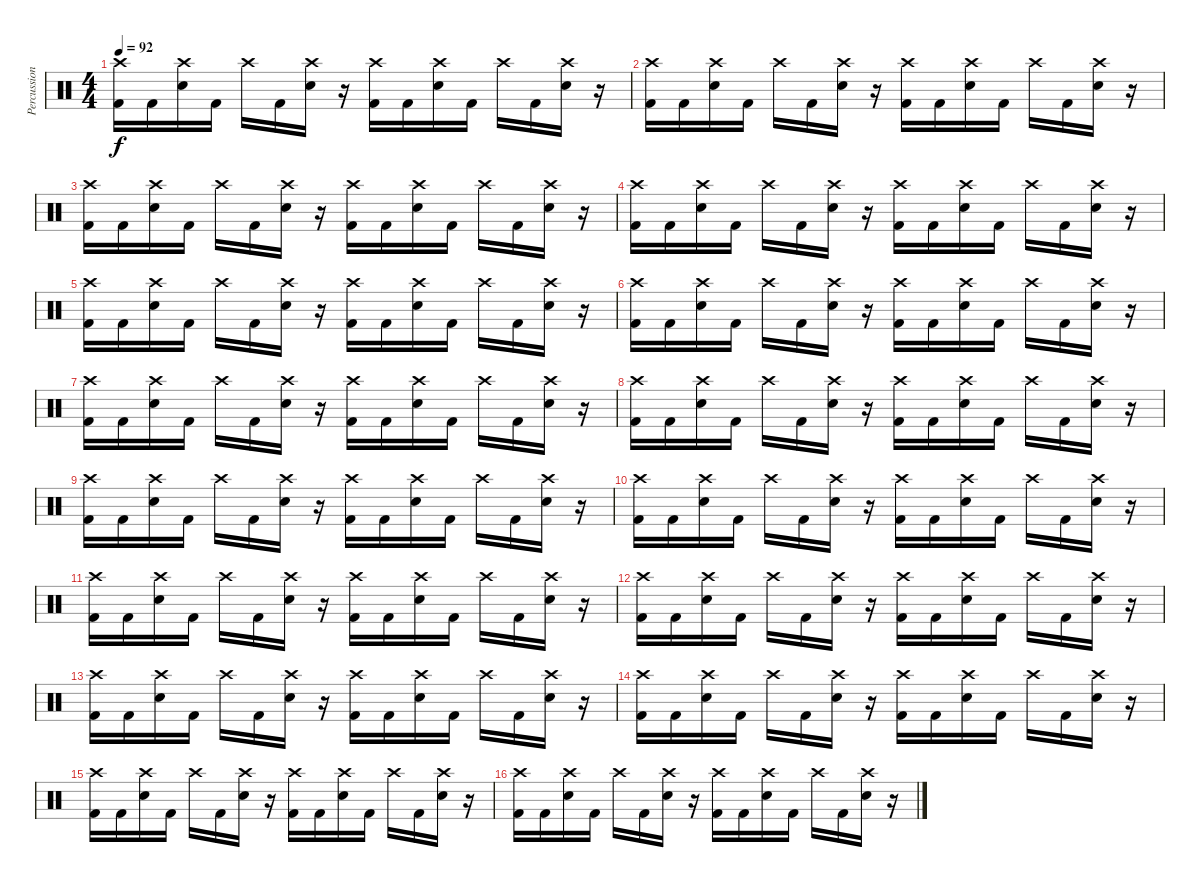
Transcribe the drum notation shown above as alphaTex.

\track ("Percussion" "Percussion") {instrument percussion}
\staff {score}
\articulation defaults
\ts (4 4)
\tempo 92
\clef neutral
\ks c
("Crash high (hit)" "Kick (hit) 2").16{dy f} "Kick (hit) 2".16 ("Crash high (hit)" "Snare (hit) 2").16 "Kick (hit) 2".16 "Crash high (hit)".16 "Kick (hit) 2".16 ("Crash high (hit)" "Snare (hit) 2").16 r.16 ("Crash high (hit)" "Kick (hit) 2").16 "Kick (hit) 2".16 ("Crash high (hit)" "Snare (hit) 2").16 "Kick (hit) 2".16 "Crash high (hit)".16 "Kick (hit) 2".16 ("Crash high (hit)" "Snare (hit) 2").16 r.16 |
("Crash high (hit)" "Kick (hit) 2").16 "Kick (hit) 2".16 ("Crash high (hit)" "Snare (hit) 2").16 "Kick (hit) 2".16 "Crash high (hit)".16 "Kick (hit) 2".16 ("Crash high (hit)" "Snare (hit) 2").16 r.16 ("Crash high (hit)" "Kick (hit) 2").16 "Kick (hit) 2".16 ("Crash high (hit)" "Snare (hit) 2").16 "Kick (hit) 2".16 "Crash high (hit)".16 "Kick (hit) 2".16 ("Crash high (hit)" "Snare (hit) 2").16 r.16 |
("Crash high (hit)" "Kick (hit) 2").16 "Kick (hit) 2".16 ("Crash high (hit)" "Snare (hit) 2").16 "Kick (hit) 2".16 "Crash high (hit)".16 "Kick (hit) 2".16 ("Crash high (hit)" "Snare (hit) 2").16 r.16 ("Crash high (hit)" "Kick (hit) 2").16 "Kick (hit) 2".16 ("Crash high (hit)" "Snare (hit) 2").16 "Kick (hit) 2".16 "Crash high (hit)".16 "Kick (hit) 2".16 ("Crash high (hit)" "Snare (hit) 2").16 r.16 |
("Crash high (hit)" "Kick (hit) 2").16 "Kick (hit) 2".16 ("Crash high (hit)" "Snare (hit) 2").16 "Kick (hit) 2".16 "Crash high (hit)".16 "Kick (hit) 2".16 ("Crash high (hit)" "Snare (hit) 2").16 r.16 ("Crash high (hit)" "Kick (hit) 2").16 "Kick (hit) 2".16 ("Crash high (hit)" "Snare (hit) 2").16 "Kick (hit) 2".16 "Crash high (hit)".16 "Kick (hit) 2".16 ("Crash high (hit)" "Snare (hit) 2").16 r.16 |
("Crash high (hit)" "Kick (hit) 2").16 "Kick (hit) 2".16 ("Crash high (hit)" "Snare (hit) 2").16 "Kick (hit) 2".16 "Crash high (hit)".16 "Kick (hit) 2".16 ("Crash high (hit)" "Snare (hit) 2").16 r.16 ("Crash high (hit)" "Kick (hit) 2").16 "Kick (hit) 2".16 ("Crash high (hit)" "Snare (hit) 2").16 "Kick (hit) 2".16 "Crash high (hit)".16 "Kick (hit) 2".16 ("Crash high (hit)" "Snare (hit) 2").16 r.16 |
("Crash high (hit)" "Kick (hit) 2").16 "Kick (hit) 2".16 ("Crash high (hit)" "Snare (hit) 2").16 "Kick (hit) 2".16 "Crash high (hit)".16 "Kick (hit) 2".16 ("Crash high (hit)" "Snare (hit) 2").16 r.16 ("Crash high (hit)" "Kick (hit) 2").16 "Kick (hit) 2".16 ("Crash high (hit)" "Snare (hit) 2").16 "Kick (hit) 2".16 "Crash high (hit)".16 "Kick (hit) 2".16 ("Crash high (hit)" "Snare (hit) 2").16 r.16 |
("Crash high (hit)" "Kick (hit) 2").16 "Kick (hit) 2".16 ("Crash high (hit)" "Snare (hit) 2").16 "Kick (hit) 2".16 "Crash high (hit)".16 "Kick (hit) 2".16 ("Crash high (hit)" "Snare (hit) 2").16 r.16 ("Crash high (hit)" "Kick (hit) 2").16 "Kick (hit) 2".16 ("Crash high (hit)" "Snare (hit) 2").16 "Kick (hit) 2".16 "Crash high (hit)".16 "Kick (hit) 2".16 ("Crash high (hit)" "Snare (hit) 2").16 r.16 |
("Crash high (hit)" "Kick (hit) 2").16 "Kick (hit) 2".16 ("Crash high (hit)" "Snare (hit) 2").16 "Kick (hit) 2".16 "Crash high (hit)".16 "Kick (hit) 2".16 ("Crash high (hit)" "Snare (hit) 2").16 r.16 ("Crash high (hit)" "Kick (hit) 2").16 "Kick (hit) 2".16 ("Crash high (hit)" "Snare (hit) 2").16 "Kick (hit) 2".16 "Crash high (hit)".16 "Kick (hit) 2".16 ("Crash high (hit)" "Snare (hit) 2").16 r.16 |
("Crash high (hit)" "Kick (hit) 2").16 "Kick (hit) 2".16 ("Crash high (hit)" "Snare (hit) 2").16 "Kick (hit) 2".16 "Crash high (hit)".16 "Kick (hit) 2".16 ("Crash high (hit)" "Snare (hit) 2").16 r.16 ("Crash high (hit)" "Kick (hit) 2").16 "Kick (hit) 2".16 ("Crash high (hit)" "Snare (hit) 2").16 "Kick (hit) 2".16 "Crash high (hit)".16 "Kick (hit) 2".16 ("Crash high (hit)" "Snare (hit) 2").16 r.16 |
("Crash high (hit)" "Kick (hit) 2").16 "Kick (hit) 2".16 ("Crash high (hit)" "Snare (hit) 2").16 "Kick (hit) 2".16 "Crash high (hit)".16 "Kick (hit) 2".16 ("Crash high (hit)" "Snare (hit) 2").16 r.16 ("Crash high (hit)" "Kick (hit) 2").16 "Kick (hit) 2".16 ("Crash high (hit)" "Snare (hit) 2").16 "Kick (hit) 2".16 "Crash high (hit)".16 "Kick (hit) 2".16 ("Crash high (hit)" "Snare (hit) 2").16 r.16 |
("Crash high (hit)" "Kick (hit) 2").16 "Kick (hit) 2".16 ("Crash high (hit)" "Snare (hit) 2").16 "Kick (hit) 2".16 "Crash high (hit)".16 "Kick (hit) 2".16 ("Crash high (hit)" "Snare (hit) 2").16 r.16 ("Crash high (hit)" "Kick (hit) 2").16 "Kick (hit) 2".16 ("Crash high (hit)" "Snare (hit) 2").16 "Kick (hit) 2".16 "Crash high (hit)".16 "Kick (hit) 2".16 ("Crash high (hit)" "Snare (hit) 2").16 r.16 |
("Crash high (hit)" "Kick (hit) 2").16 "Kick (hit) 2".16 ("Crash high (hit)" "Snare (hit) 2").16 "Kick (hit) 2".16 "Crash high (hit)".16 "Kick (hit) 2".16 ("Crash high (hit)" "Snare (hit) 2").16 r.16 ("Crash high (hit)" "Kick (hit) 2").16 "Kick (hit) 2".16 ("Crash high (hit)" "Snare (hit) 2").16 "Kick (hit) 2".16 "Crash high (hit)".16 "Kick (hit) 2".16 ("Crash high (hit)" "Snare (hit) 2").16 r.16 |
("Crash high (hit)" "Kick (hit) 2").16 "Kick (hit) 2".16 ("Crash high (hit)" "Snare (hit) 2").16 "Kick (hit) 2".16 "Crash high (hit)".16 "Kick (hit) 2".16 ("Crash high (hit)" "Snare (hit) 2").16 r.16 ("Crash high (hit)" "Kick (hit) 2").16 "Kick (hit) 2".16 ("Crash high (hit)" "Snare (hit) 2").16 "Kick (hit) 2".16 "Crash high (hit)".16 "Kick (hit) 2".16 ("Crash high (hit)" "Snare (hit) 2").16 r.16 |
("Crash high (hit)" "Kick (hit) 2").16 "Kick (hit) 2".16 ("Crash high (hit)" "Snare (hit) 2").16 "Kick (hit) 2".16 "Crash high (hit)".16 "Kick (hit) 2".16 ("Crash high (hit)" "Snare (hit) 2").16 r.16 ("Crash high (hit)" "Kick (hit) 2").16 "Kick (hit) 2".16 ("Crash high (hit)" "Snare (hit) 2").16 "Kick (hit) 2".16 "Crash high (hit)".16 "Kick (hit) 2".16 ("Crash high (hit)" "Snare (hit) 2").16 r.16 |
("Crash high (hit)" "Kick (hit) 2").16 "Kick (hit) 2".16 ("Crash high (hit)" "Snare (hit) 2").16 "Kick (hit) 2".16 "Crash high (hit)".16 "Kick (hit) 2".16 ("Crash high (hit)" "Snare (hit) 2").16 r.16 ("Crash high (hit)" "Kick (hit) 2").16 "Kick (hit) 2".16 ("Crash high (hit)" "Snare (hit) 2").16 "Kick (hit) 2".16 "Crash high (hit)".16 "Kick (hit) 2".16 ("Crash high (hit)" "Snare (hit) 2").16 r.16 |
("Crash high (hit)" "Kick (hit) 2").16 "Kick (hit) 2".16 ("Crash high (hit)" "Snare (hit) 2").16 "Kick (hit) 2".16 "Crash high (hit)".16 "Kick (hit) 2".16 ("Crash high (hit)" "Snare (hit) 2").16 r.16 ("Crash high (hit)" "Kick (hit) 2").16 "Kick (hit) 2".16 ("Crash high (hit)" "Snare (hit) 2").16 "Kick (hit) 2".16 "Crash high (hit)".16 "Kick (hit) 2".16 ("Crash high (hit)" "Snare (hit) 2").16 r.16
